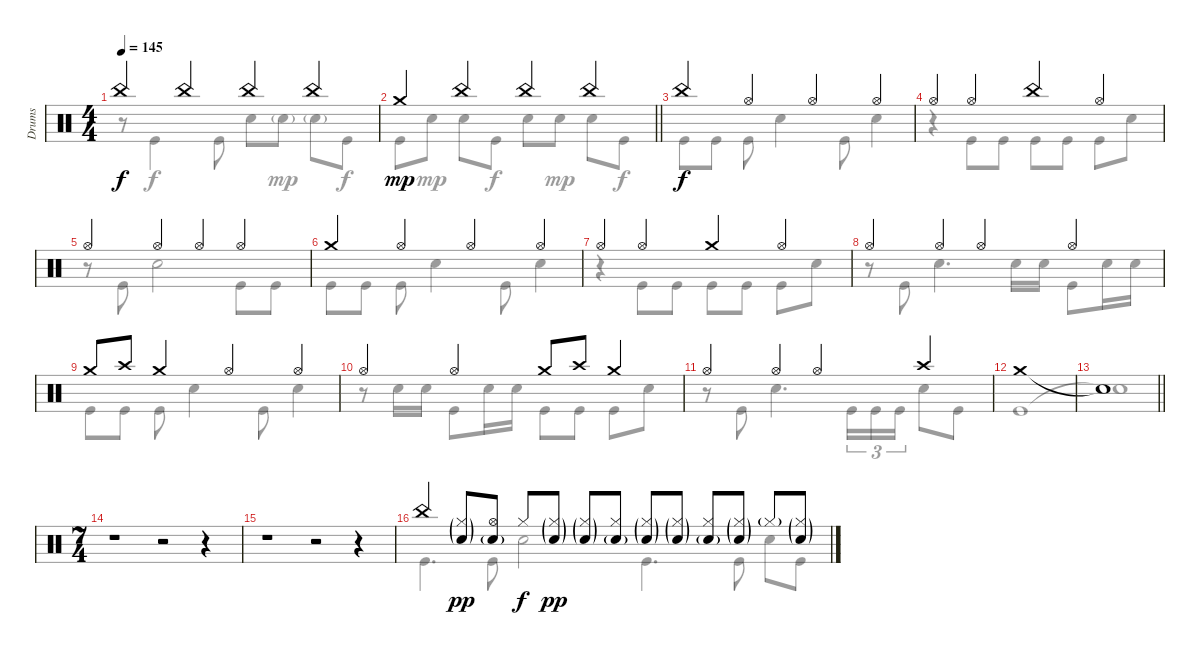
\track ("Drums" "Drums") {instrument percussion}
\staff {score}
\articulation defaults
\voice
\ts (4 4)
\tempo 145
\clef neutral
\ks c "China (hit)".4{dy f} "China (hit)".4 "China (hit)".4 "China (hit)".4
|
\barLineRight lightlight "Crash medium (hit)".4{dy mp} "China (hit)".4 "China (hit)".4 "China (hit)".4
|
\section ("" "")
"China (hit)".4{dy f} "Hi-Hat (open)".4 "Hi-Hat (open)".4 "Hi-Hat (open)".4 |
"Hi-Hat (open)".4 "Hi-Hat (open)".4 "China (hit)".4 "Hi-Hat (open)".4 |
"Hi-Hat (open)".4 "Hi-Hat (open)".4 "Hi-Hat (open)".4 "Hi-Hat (open)".4 |
"Crash medium (hit)".4 "Hi-Hat (open)".4 "Hi-Hat (open)".4 "Hi-Hat (open)".4 |
"Hi-Hat (open)".4 "Hi-Hat (open)".4 "Crash medium (hit)".4 "Hi-Hat (open)".4 |
"Hi-Hat (open)".4 "Hi-Hat (open)".4 "Hi-Hat (open)".4 "Hi-Hat (open)".4 |
"Crash medium (hit)".8 "Crash high (hit)".8 "Crash medium (hit)".4 "Hi-Hat (open)".4 "Hi-Hat (open)".4 |
"Hi-Hat (open)".4 "Hi-Hat (open)".4 "Crash medium (hit)".8 "Crash high (hit)".8 "Crash medium (hit)".4 |
"Hi-Hat (open)".4 "Hi-Hat (open)".4 "Hi-Hat (open)".4 "Crash high (hit)".4 |
"Crash medium (hit)".1 |
\barLineRight lightlight "Snare (hit)"{t}.1
|
\ts (7 4)
\section ("" "")
r.1 r.2 r.4 |
r.1 r.2 r.4 |
"China (hit)".4 ("Hi-Hat (closed)"{g} "Snare (hit) 2"{g}).8{dy pp} ("Hi-Hat (open)" "Snare (hit) 2"{g}).8 "Hi-Hat (closed)".8{dy f} ("Hi-Hat (closed)"{g} "Snare (hit) 2"{g}).8{dy pp} ("Hi-Hat (closed)"{g} "Snare (hit) 2"{g}).8 ("Hi-Hat (closed)" "Snare (hit) 2"{g}).8 ("Hi-Hat (closed)"{g} "Snare (hit) 2"{g}).8 ("Hi-Hat (closed)"{g} "Snare (hit) 2"{g}).8 ("Hi-Hat (closed)" "Snare (hit) 2"{g}).8 ("Hi-Hat (closed)"{g} "Snare (hit) 2"{g}).8 "Hi-Hat (closed)"{g}.8 ("Hi-Hat (closed)"{g} "Snare (hit) 2"{g}).8
\voice
\clef neutral
\ottava regular
\simile none
\ks c
r.8{dy f} "Kick (hit)".4 "Kick (hit)".8 "Snare (hit) 2".8 "Snare (hit) 2"{g}.8{dy mp} "Snare (hit) 2"{g}.8 "Kick (hit)".8{dy f} |
\barLineRight lightlight "Kick (hit)".8 "Snare (hit) 2".8{dy mp} "Snare (hit) 2".8 "Kick (hit)".8{dy f} "Snare (hit) 2".8 "Snare (hit) 2".8{dy mp} "Snare (hit) 2".8 "Kick (hit)".8{dy f}
|
"Kick (hit)".8 "Kick (hit)".8 "Kick (hit)".8 "Snare (hit) 2".4 "Kick (hit)".8 "Snare (hit) 2".4 |
r.4 "Kick (hit)".8 "Kick (hit)".8 "Kick (hit)".8 "Kick (hit)".8 "Kick (hit)".8 "Snare (hit) 2".8 |
r.8 "Kick (hit)".8 "Snare (hit) 2".2 "Kick (hit)".8 "Kick (hit)".8 |
"Kick (hit)".8 "Kick (hit)".8 "Kick (hit)".8 "Snare (hit) 2".4 "Kick (hit)".8 "Snare (hit) 2".4 |
r.4 "Kick (hit)".8 "Kick (hit)".8 "Kick (hit)".8 "Kick (hit)".8 "Kick (hit)".8 "Snare (hit) 2".8 |
r.8 "Kick (hit)".8 "Snare (hit) 2".4{d} "Snare (hit) 2".16 "Snare (hit) 2".16 "Kick (hit)".8 "Snare (hit) 2".16 "Snare (hit) 2".16 |
"Kick (hit)".8 "Kick (hit)".8 "Kick (hit)".8 "Snare (hit) 2".4 "Kick (hit)".8 "Snare (hit) 2".4 |
r.8 "Snare (hit) 2".16 "Snare (hit) 2".16 "Kick (hit)".8 "Snare (hit) 2".16 "Snare (hit) 2".16 "Kick (hit)".8 "Kick (hit)".8 "Kick (hit)".8 "Snare (hit) 2".8 |
r.8 "Kick (hit)".8 "Snare (hit) 2".4{d} "Kick (hit)".16{tu (3 2)} "Kick (hit)".16{tu (3 2)} "Kick (hit)".16{tu (3 2)} "Snare (hit) 2".8 "Kick (hit)".8 |
"Kick (hit)".1 |
\barLineRight lightlight "Snare (hit)"{t}.1
|
|
|
"Kick (hit)".4{d} "Kick (hit)".8 "Snare (hit) 2".2 "Kick (hit)".4{d} "Kick (hit)".8 "Snare (hit) 2".8 "Kick (hit)".8
